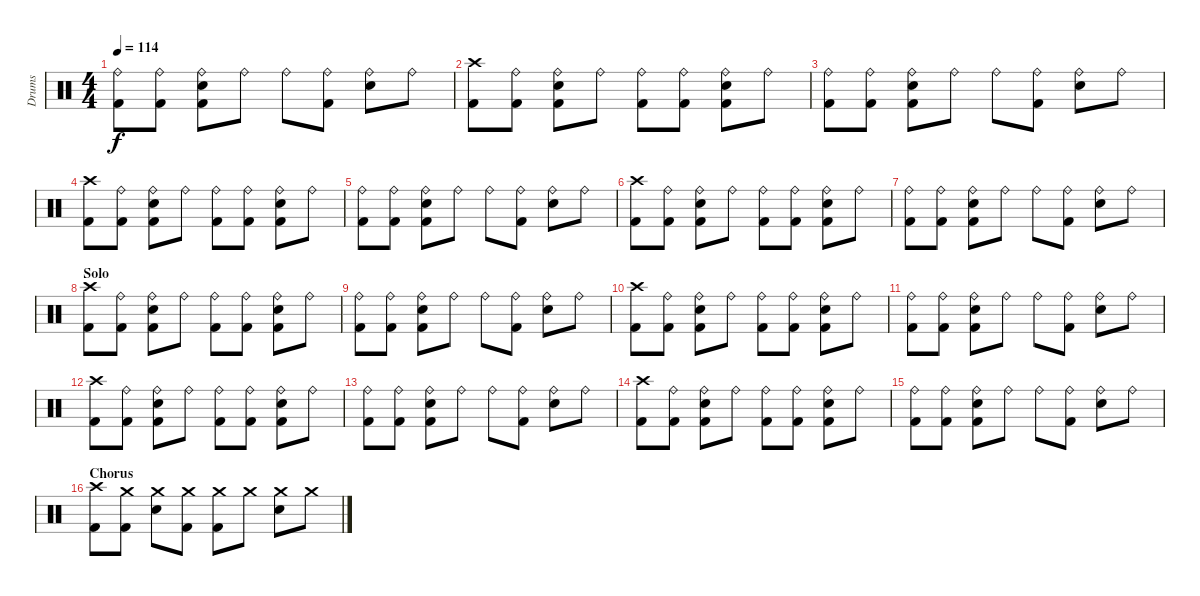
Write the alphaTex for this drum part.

\track ("Drums" "Drums") {instrument percussion}
\staff {score}
\articulation defaults
\ts (4 4)
\tempo 114
\clef neutral
\ks c
("Ride (bell)" "Kick (hit) 2").8{dy f} ("Ride (bell)" "Kick (hit) 2").8 ("Ride (bell)" "Snare (hit) 2" "Kick (hit) 2").8 "Ride (bell)".8 "Ride (bell)".8 ("Ride (bell)" "Kick (hit) 2").8 ("Ride (bell)" "Snare (hit) 2").8 "Ride (bell)".8 |
("Crash high (hit)" "Kick (hit) 2").8 ("Ride (bell)" "Kick (hit) 2").8 ("Ride (bell)" "Snare (hit) 2" "Kick (hit) 2").8 "Ride (bell)".8 ("Ride (bell)" "Kick (hit) 2").8 ("Ride (bell)" "Kick (hit) 2").8 ("Ride (bell)" "Snare (hit) 2" "Kick (hit) 2").8 "Ride (bell)".8 |
("Ride (bell)" "Kick (hit) 2").8 ("Ride (bell)" "Kick (hit) 2").8 ("Ride (bell)" "Snare (hit) 2" "Kick (hit) 2").8 "Ride (bell)".8 "Ride (bell)".8 ("Ride (bell)" "Kick (hit) 2").8 ("Ride (bell)" "Snare (hit) 2").8 "Ride (bell)".8 |
("Crash high (hit)" "Kick (hit) 2").8 ("Ride (bell)" "Kick (hit) 2").8 ("Ride (bell)" "Snare (hit) 2" "Kick (hit) 2").8 "Ride (bell)".8 ("Ride (bell)" "Kick (hit) 2").8 ("Ride (bell)" "Kick (hit) 2").8 ("Ride (bell)" "Snare (hit) 2" "Kick (hit) 2").8 "Ride (bell)".8 |
("Ride (bell)" "Kick (hit) 2").8 ("Ride (bell)" "Kick (hit) 2").8 ("Ride (bell)" "Snare (hit) 2" "Kick (hit) 2").8 "Ride (bell)".8 "Ride (bell)".8 ("Ride (bell)" "Kick (hit) 2").8 ("Ride (bell)" "Snare (hit) 2").8 "Ride (bell)".8 |
("Crash high (hit)" "Kick (hit) 2").8 ("Ride (bell)" "Kick (hit) 2").8 ("Ride (bell)" "Snare (hit) 2" "Kick (hit) 2").8 "Ride (bell)".8 ("Ride (bell)" "Kick (hit) 2").8 ("Ride (bell)" "Kick (hit) 2").8 ("Ride (bell)" "Snare (hit) 2" "Kick (hit) 2").8 "Ride (bell)".8 |
("Ride (bell)" "Kick (hit) 2").8 ("Ride (bell)" "Kick (hit) 2").8 ("Ride (bell)" "Snare (hit) 2" "Kick (hit) 2").8 "Ride (bell)".8 "Ride (bell)".8 ("Ride (bell)" "Kick (hit) 2").8 ("Ride (bell)" "Snare (hit) 2").8 "Ride (bell)".8 |
\section ("" "Solo")
("Crash high (hit)" "Kick (hit) 2").8 ("Ride (bell)" "Kick (hit) 2").8 ("Ride (bell)" "Snare (hit) 2" "Kick (hit) 2").8 "Ride (bell)".8 ("Ride (bell)" "Kick (hit) 2").8 ("Ride (bell)" "Kick (hit) 2").8 ("Ride (bell)" "Snare (hit) 2" "Kick (hit) 2").8 "Ride (bell)".8 |
("Ride (bell)" "Kick (hit) 2").8 ("Ride (bell)" "Kick (hit) 2").8 ("Ride (bell)" "Snare (hit) 2" "Kick (hit) 2").8 "Ride (bell)".8 "Ride (bell)".8 ("Ride (bell)" "Kick (hit) 2").8 ("Ride (bell)" "Snare (hit) 2").8 "Ride (bell)".8 |
("Crash high (hit)" "Kick (hit) 2").8 ("Ride (bell)" "Kick (hit) 2").8 ("Ride (bell)" "Snare (hit) 2" "Kick (hit) 2").8 "Ride (bell)".8 ("Ride (bell)" "Kick (hit) 2").8 ("Ride (bell)" "Kick (hit) 2").8 ("Ride (bell)" "Snare (hit) 2" "Kick (hit) 2").8 "Ride (bell)".8 |
("Ride (bell)" "Kick (hit) 2").8 ("Ride (bell)" "Kick (hit) 2").8 ("Ride (bell)" "Snare (hit) 2" "Kick (hit) 2").8 "Ride (bell)".8 "Ride (bell)".8 ("Ride (bell)" "Kick (hit) 2").8 ("Ride (bell)" "Snare (hit) 2").8 "Ride (bell)".8 |
("Crash high (hit)" "Kick (hit) 2").8 ("Ride (bell)" "Kick (hit) 2").8 ("Ride (bell)" "Snare (hit) 2" "Kick (hit) 2").8 "Ride (bell)".8 ("Ride (bell)" "Kick (hit) 2").8 ("Ride (bell)" "Kick (hit) 2").8 ("Ride (bell)" "Snare (hit) 2" "Kick (hit) 2").8 "Ride (bell)".8 |
("Ride (bell)" "Kick (hit) 2").8 ("Ride (bell)" "Kick (hit) 2").8 ("Ride (bell)" "Snare (hit) 2" "Kick (hit) 2").8 "Ride (bell)".8 "Ride (bell)".8 ("Ride (bell)" "Kick (hit) 2").8 ("Ride (bell)" "Snare (hit) 2").8 "Ride (bell)".8 |
("Crash high (hit)" "Kick (hit) 2").8 ("Ride (bell)" "Kick (hit) 2").8 ("Ride (bell)" "Snare (hit) 2" "Kick (hit) 2").8 "Ride (bell)".8 ("Ride (bell)" "Kick (hit) 2").8 ("Ride (bell)" "Kick (hit) 2").8 ("Ride (bell)" "Snare (hit) 2" "Kick (hit) 2").8 "Ride (bell)".8 |
("Ride (bell)" "Kick (hit) 2").8 ("Ride (bell)" "Kick (hit) 2").8 ("Ride (bell)" "Snare (hit) 2" "Kick (hit) 2").8 "Ride (bell)".8 "Ride (bell)".8 ("Ride (bell)" "Kick (hit) 2").8 ("Ride (bell)" "Snare (hit) 2").8 "Ride (bell)".8 |
\section ("" "Chorus")
("Crash high (hit)" "Kick (hit) 2").8 ("Crash medium (hit)" "Kick (hit) 2").8 ("Crash medium (hit)" "Snare (hit) 2").8 ("Crash medium (hit)" "Kick (hit) 2").8 ("Crash medium (hit)" "Kick (hit) 2").8 "Crash medium (hit)".8 ("Crash medium (hit)" "Snare (hit) 2").8 "Crash medium (hit)".8
